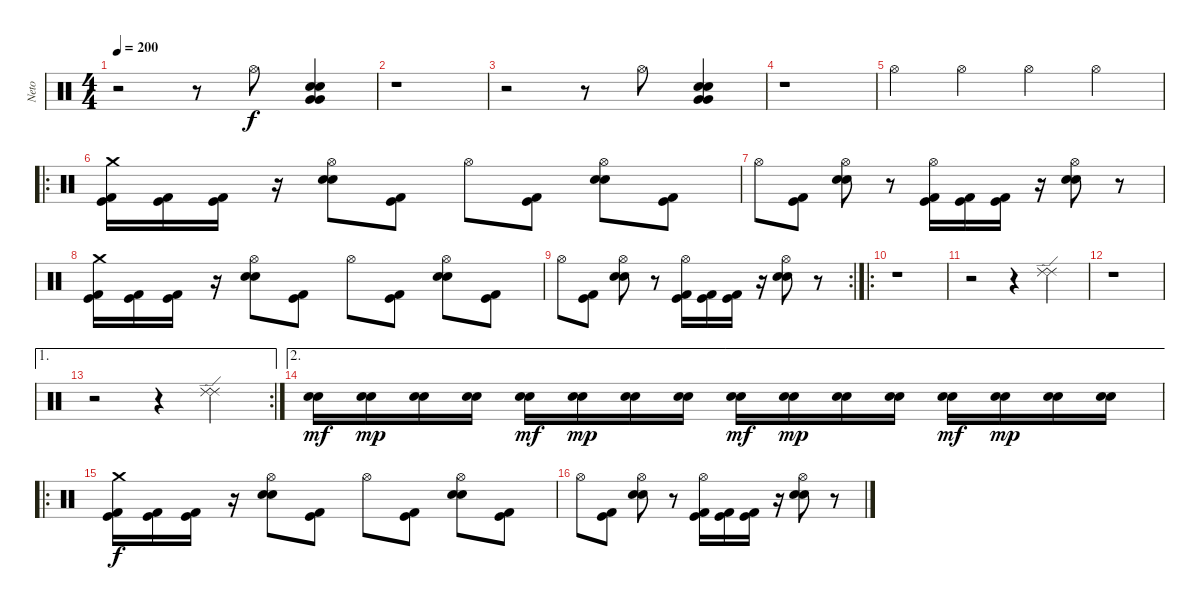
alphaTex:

\track ("Neto" "Neto") {instrument percussion}
\staff {score}
\articulation defaults
\ts (4 4)
\tempo 200
\clef neutral
\ks c
r.2{dy f} r.8 "Hi-Hat (open)".8 ("Snare (hit) 2" "Snare (hit) 2" "Very Low Tom (hit)" "Very Low Tom (hit)").4 |
r.1 |
r.2 r.8 "Hi-Hat (open)".8 ("Snare (hit) 2" "Snare (hit) 2" "Very Low Tom (hit)" "Very Low Tom (hit)").4 |
r.1 |
"Hi-Hat (open)".4 "Hi-Hat (open)".4 "Hi-Hat (open)".4 "Hi-Hat (open)".4 |
\ro
("Crash medium (hit)" "Kick (hit)" "Kick (hit) 2").16 ("Kick (hit)" "Kick (hit) 2").16 ("Kick (hit)" "Kick (hit) 2").16 r.16 ("Hi-Hat (open)" "Snare (hit) 2" "Snare (hit) 2").8 ("Kick (hit) 2" "Kick (hit)").8 "Hi-Hat (open)".8 ("Kick (hit)" "Kick (hit) 2").8 ("Hi-Hat (open)" "Snare (hit) 2" "Snare (hit) 2").8 ("Kick (hit) 2" "Kick (hit)").8 |
"Hi-Hat (open)".8 ("Kick (hit)" "Kick (hit) 2").8 ("Hi-Hat (open)" "Snare (hit) 2" "Snare (hit) 2").8 r.8 ("Hi-Hat (open)" "Kick (hit)" "Kick (hit) 2").16 ("Kick (hit)" "Kick (hit) 2").16 ("Kick (hit)" "Kick (hit) 2").16 r.16 ("Hi-Hat (open)" "Snare (hit) 2" "Snare (hit) 2").8 r.8 |
("Crash medium (hit)" "Kick (hit)" "Kick (hit) 2").16 ("Kick (hit)" "Kick (hit) 2").16 ("Kick (hit)" "Kick (hit) 2").16 r.16 ("Hi-Hat (open)" "Snare (hit) 2" "Snare (hit) 2").8 ("Kick (hit) 2" "Kick (hit)").8 "Hi-Hat (open)".8 ("Kick (hit)" "Kick (hit) 2").8 ("Hi-Hat (open)" "Snare (hit) 2" "Snare (hit) 2").8 ("Kick (hit) 2" "Kick (hit)").8 |
\rc 2 "Hi-Hat (open)".8
("Kick (hit)" "Kick (hit) 2").8 ("Hi-Hat (open)" "Snare (hit) 2" "Snare (hit) 2").8 r.8 ("Hi-Hat (open)" "Kick (hit)" "Kick (hit) 2").16 ("Kick (hit)" "Kick (hit) 2").16 ("Kick (hit)" "Kick (hit) 2").16 r.16 ("Hi-Hat (open)" "Snare (hit) 2" "Snare (hit) 2").8 r.8 |
\ro
r.1 |
r.2 r.4 ("Ride (edge) 2" "Ride (edge) 2").4 |
r.1 |
\ae 1
\rc 2
r.2 r.4 ("Ride (edge) 2" "Ride (edge) 2").4 |
\ae 2
("Snare (hit) 2" "Snare (hit) 2").16{dy mf} ("Snare (hit) 2" "Snare (hit) 2").16{dy mp} ("Snare (hit) 2" "Snare (hit) 2").16 ("Snare (hit) 2" "Snare (hit) 2").16 ("Snare (hit) 2" "Snare (hit) 2").16{dy mf} ("Snare (hit) 2" "Snare (hit) 2").16{dy mp} ("Snare (hit) 2" "Snare (hit) 2").16 ("Snare (hit) 2" "Snare (hit) 2").16 ("Snare (hit) 2" "Snare (hit) 2").16{dy mf} ("Snare (hit) 2" "Snare (hit) 2").16{dy mp} ("Snare (hit) 2" "Snare (hit) 2").16 ("Snare (hit) 2" "Snare (hit) 2").16 ("Snare (hit) 2" "Snare (hit) 2").16{dy mf} ("Snare (hit) 2" "Snare (hit) 2").16{dy mp} ("Snare (hit) 2" "Snare (hit) 2").16 ("Snare (hit) 2" "Snare (hit) 2").16 |
\ro
("Crash medium (hit)" "Kick (hit)" "Kick (hit) 2").16{dy f} ("Kick (hit)" "Kick (hit) 2").16 ("Kick (hit)" "Kick (hit) 2").16 r.16 ("Hi-Hat (open)" "Snare (hit) 2" "Snare (hit) 2").8 ("Kick (hit) 2" "Kick (hit)").8 "Hi-Hat (open)".8 ("Kick (hit)" "Kick (hit) 2").8 ("Hi-Hat (open)" "Snare (hit) 2" "Snare (hit) 2").8 ("Kick (hit) 2" "Kick (hit)").8 |
"Hi-Hat (open)".8 ("Kick (hit)" "Kick (hit) 2").8 ("Hi-Hat (open)" "Snare (hit) 2" "Snare (hit) 2").8 r.8 ("Hi-Hat (open)" "Kick (hit)" "Kick (hit) 2").16 ("Kick (hit)" "Kick (hit) 2").16 ("Kick (hit)" "Kick (hit) 2").16 r.16 ("Hi-Hat (open)" "Snare (hit) 2" "Snare (hit) 2").8 r.8
